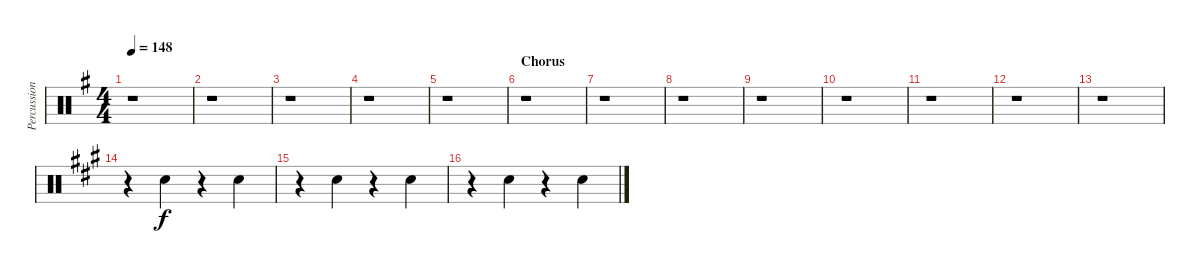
\track ("Percussion" "Percussion") {instrument percussion}
\staff {score}
\articulation defaults
\ts (4 4)
\tempo 148
\clef neutral
\ks g
r.1{dy f} |
r.1 |
r.1 |
r.1 |
r.1 |
\section ("" "Chorus")
r.1 |
r.1 |
r.1 |
r.1 |
r.1 |
r.1 |
r.1 |
r.1 |
\ks a
r.4 "Hand Clap (hit)".4 r.4 "Hand Clap (hit)".4 |
r.4 "Hand Clap (hit)".4 r.4 "Hand Clap (hit)".4 |
r.4 "Hand Clap (hit)".4 r.4 "Hand Clap (hit)".4
